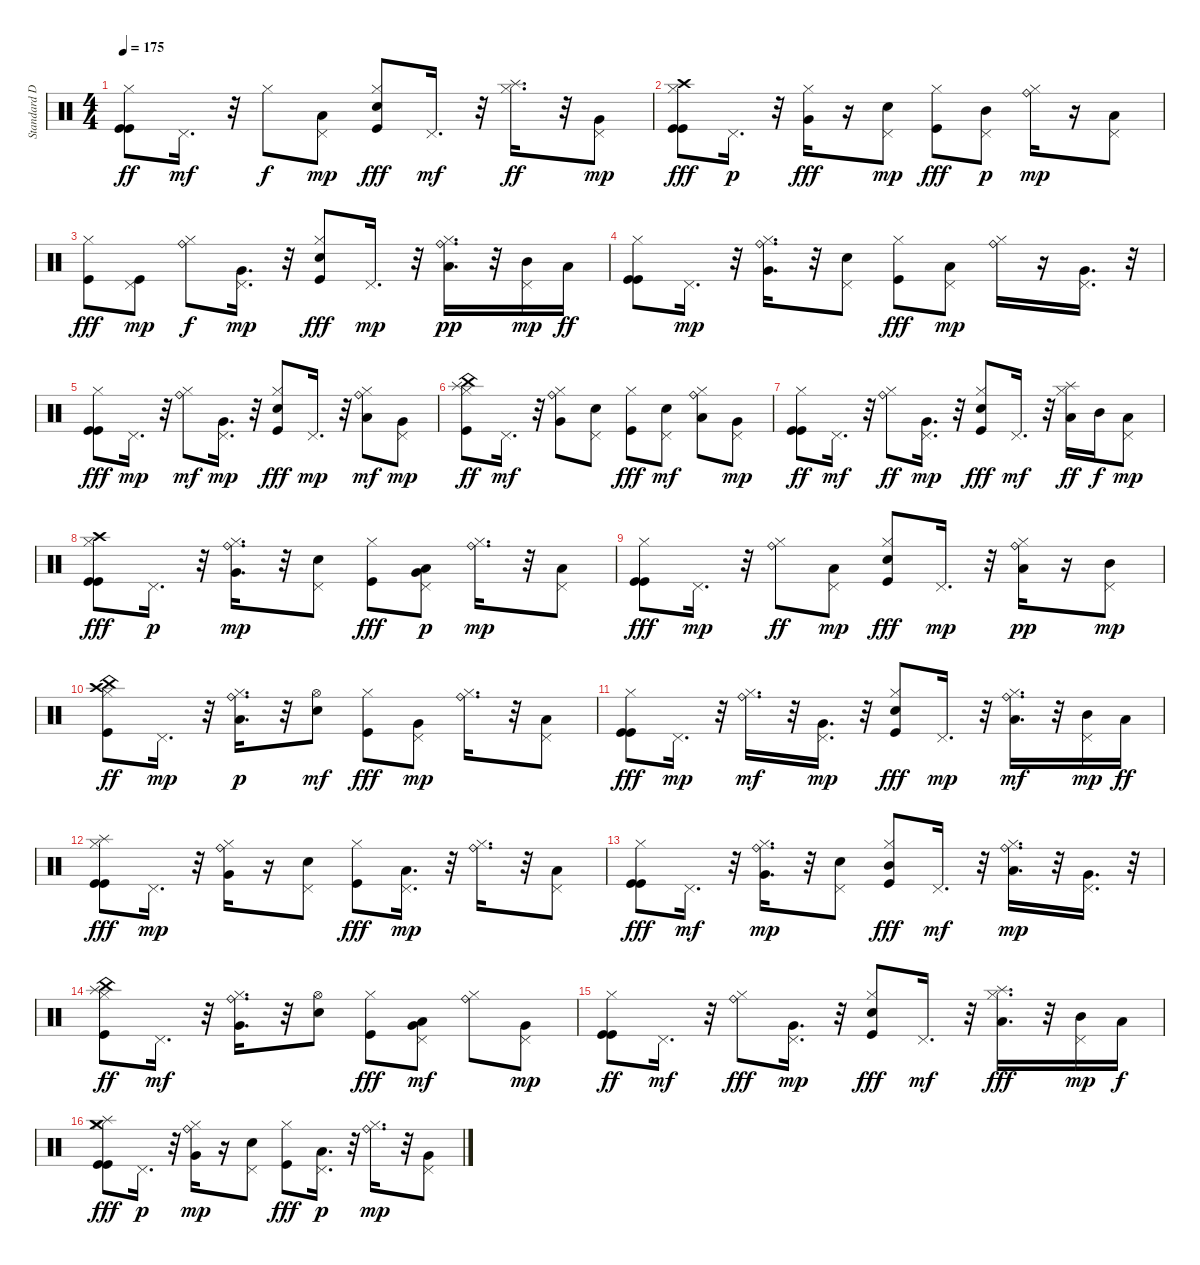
\track ("Standard Drums" "Standard D") {instrument percussion}
\staff {score}
\articulation defaults
\ts (4 4)
\tempo 175
\clef neutral
\ks c
("Kick (hit)" "Kick (hit)" "Hi-Hat (closed)").8{dy ff} "Pedal Hi-Hat (hit)".16{d dy mf} r.32 "Hi-Hat (closed)".8{dy f} ("Low Tom (hit)" "Pedal Hi-Hat (hit)").8{dy mp} ("Snare (hit) 2" "Kick (hit)" "Hi-Hat (closed)").8{dy fff} "Pedal Hi-Hat (hit)".16{d dy mf} r.32 ("Splash (hit)" "Hi-Hat (closed)").16{d dy ff} r.32 ("Very Low Tom (hit)" "Pedal Hi-Hat (hit)").8{dy mp} |
("Crash high (hit)" "Kick (hit)" "Kick (hit)" "Hi-Hat (closed)").8{dy fff} "Pedal Hi-Hat (hit)".16{d dy p} r.32 ("Very Low Tom (hit)" "Hi-Hat (closed)").16{dy fff} r.16 ("Snare (hit) 2" "Pedal Hi-Hat (hit)").8{dy mp} ("Kick (hit)" "Hi-Hat (closed)").8{dy fff} ("Mid Tom (hit)" "Pedal Hi-Hat (hit)").8{dy p} ("Ride (bell)" "Hi-Hat (closed)").16{dy mp} r.16 ("Low Tom (hit)" "Pedal Hi-Hat (hit)").8 |
("Kick (hit)" "Hi-Hat (closed)").8{dy fff} ("Kick (hit)" "Pedal Hi-Hat (hit)").8{dy mp} ("Ride (bell)" "Hi-Hat (closed)").8{dy f} ("Very Low Tom (hit)" "Pedal Hi-Hat (hit)").16{d dy mp} r.32 ("Snare (hit) 2" "Kick (hit)" "Hi-Hat (closed)").8{dy fff} "Pedal Hi-Hat (hit)".16{d dy mp} r.32 ("Ride (bell)" "Low Tom (hit)" "Hi-Hat (closed)").16{d dy pp} r.32 ("Mid Tom (hit)" "Pedal Hi-Hat (hit)").16{dy mp} "Low Tom (hit)".16{dy ff} |
("Kick (hit)" "Kick (hit)" "Hi-Hat (closed)").8 "Pedal Hi-Hat (hit)".16{d dy mp} r.32 ("Ride (bell)" "Very Low Tom (hit)" "Hi-Hat (closed)").16{d} r.32 ("Snare (hit) 2" "Pedal Hi-Hat (hit)").8 ("Kick (hit)" "Hi-Hat (closed)").8{dy fff} ("Low Tom (hit)" "Pedal Hi-Hat (hit)").8{dy mp} ("Ride (bell)" "Hi-Hat (closed)").16 r.16 ("Very Low Tom (hit)" "Pedal Hi-Hat (hit)").16{d} r.32 |
("Kick (hit)" "Kick (hit)" "Hi-Hat (closed)").8{dy fff} "Pedal Hi-Hat (hit)".16{d dy mp} r.32 ("Ride (bell)" "Hi-Hat (closed)").8{dy mf} ("Very Low Tom (hit)" "Pedal Hi-Hat (hit)").16{d dy mp} r.32 ("Snare (hit) 2" "Kick (hit)" "Hi-Hat (closed)").8{dy fff} "Pedal Hi-Hat (hit)".16{d dy mp} r.32 ("Ride (bell)" "Low Tom (hit)" "Hi-Hat (closed)").8{dy mf} ("Very Low Tom (hit)" "Pedal Hi-Hat (hit)").8{dy mp} |
("Splash (hit)" "Kick (hit)" "China (hit)" "Hi-Hat (closed)").8{dy ff} "Pedal Hi-Hat (hit)".16{d dy mf} r.32 ("Ride (bell)" "Very Low Tom (hit)" "Hi-Hat (closed)").8 ("Snare (hit) 2" "Pedal Hi-Hat (hit)").8 ("Kick (hit)" "Hi-Hat (closed)").8{dy fff} ("Electric Snare (hit)" "Pedal Hi-Hat (hit)").8{dy mf} ("Ride (bell)" "Low Tom (hit)" "Hi-Hat (closed)").8 ("Very Low Tom (hit)" "Pedal Hi-Hat (hit)").8{dy mp} |
("Kick (hit)" "Kick (hit)" "Hi-Hat (closed)").8{dy ff} "Pedal Hi-Hat (hit)".16{d dy mf} r.32 ("Ride (bell)" "Hi-Hat (closed)").8{dy ff} ("Very Low Tom (hit)" "Pedal Hi-Hat (hit)").16{d dy mp} r.32 ("Snare (hit) 2" "Kick (hit)" "Hi-Hat (closed)").8{dy fff} "Pedal Hi-Hat (hit)".16{d dy mf} r.32 ("Splash (hit)" "Low Tom (hit)" "Hi-Hat (closed)").16{dy ff} "Mid Tom (hit)".16{dy f} ("Low Tom (hit)" "Pedal Hi-Hat (hit)").8{dy mp} |
("Crash high (hit)" "Kick (hit)" "Kick (hit)" "Hi-Hat (closed)").8{dy fff} "Pedal Hi-Hat (hit)".16{d dy p} r.32 ("Ride (bell)" "Very Low Tom (hit)" "Hi-Hat (closed)").16{d dy mp} r.32 ("Snare (hit) 2" "Pedal Hi-Hat (hit)").8 ("Kick (hit)" "Hi-Hat (closed)").8{dy fff} ("Very Low Tom (hit)" "Low Floor Tom (hit)" "Pedal Hi-Hat (hit)").8{dy p} ("Ride (bell)" "Hi-Hat (closed)").16{d dy mp} r.32 ("Low Tom (hit)" "Pedal Hi-Hat (hit)").8 |
("Kick (hit)" "Kick (hit)" "Hi-Hat (closed)").8{dy fff} "Pedal Hi-Hat (hit)".16{d dy mp} r.32 ("Ride (bell)" "Hi-Hat (closed)").8{dy ff} ("Low Tom (hit)" "Pedal Hi-Hat (hit)").8{dy mp} ("Snare (hit) 2" "Kick (hit)" "Hi-Hat (closed)").8{dy fff} "Pedal Hi-Hat (hit)".16{d dy mp} r.32 ("Ride (bell)" "Low Tom (hit)" "Hi-Hat (closed)").16{dy pp} r.16 ("Mid Tom (hit)" "Pedal Hi-Hat (hit)").8{dy mp} |
("Crash high (hit)" "Kick (hit)" "China (hit)" "Hi-Hat (closed)").8{dy ff} "Pedal Hi-Hat (hit)".16{d dy mp} r.32 ("Ride (bell)" "Low Tom (hit)" "Hi-Hat (closed)").16{d dy p} r.32 ("Snare (hit) 2" "Hi-Hat (open)").8{dy mf} ("Kick (hit)" "Hi-Hat (closed)").8{dy fff} ("Very Low Tom (hit)" "Pedal Hi-Hat (hit)").8{dy mp} ("Ride (bell)" "Hi-Hat (closed)").16{d} r.32 ("Low Tom (hit)" "Pedal Hi-Hat (hit)").8 |
("Kick (hit)" "Kick (hit)" "Hi-Hat (closed)").8{dy fff} "Pedal Hi-Hat (hit)".16{d dy mp} r.32 ("Ride (bell)" "Hi-Hat (closed)").16{d dy mf} r.32 ("Very Low Tom (hit)" "Pedal Hi-Hat (hit)").16{d dy mp} r.32 ("Snare (hit) 2" "Kick (hit)" "Hi-Hat (closed)").8{dy fff} "Pedal Hi-Hat (hit)".16{d dy mp} r.32 ("Ride (bell)" "Low Tom (hit)" "Hi-Hat (closed)").16{d dy mf} r.32 ("Mid Tom (hit)" "Pedal Hi-Hat (hit)").16{dy mp} "Low Tom (hit)".16{dy ff} |
("Splash (hit)" "Kick (hit)" "Kick (hit)" "Hi-Hat (closed)").8{dy fff} "Pedal Hi-Hat (hit)".16{d dy mp} r.32 ("Ride (bell)" "Very Low Tom (hit)" "Hi-Hat (closed)").16 r.16 ("Snare (hit) 2" "Pedal Hi-Hat (hit)").8 ("Kick (hit)" "Hi-Hat (closed)").8{dy fff} ("Low Tom (hit)" "Pedal Hi-Hat (hit)").16{d dy mp} r.32 ("Ride (bell)" "Hi-Hat (closed)").16{d} r.32 ("Low Tom (hit)" "Pedal Hi-Hat (hit)").8 |
("Kick (hit)" "Kick (hit)" "Hi-Hat (closed)").8{dy fff} "Pedal Hi-Hat (hit)".16{d dy mf} r.32 ("Ride (bell)" "Very Low Tom (hit)" "Hi-Hat (closed)").16{d dy mp} r.32 ("Snare (hit) 2" "Pedal Hi-Hat (hit)").8 ("Mid Tom (hit)" "Kick (hit)" "Hi-Hat (closed)").8{dy fff} "Pedal Hi-Hat (hit)".16{d dy mf} r.32 ("Ride (bell)" "Low Tom (hit)" "Hi-Hat (closed)").16{d dy mp} r.32 ("Very Low Tom (hit)" "Pedal Hi-Hat (hit)").16{d} r.32 |
("China (hit)" "Kick (hit)" "Splash (hit)" "Hi-Hat (closed)").8{dy ff} "Pedal Hi-Hat (hit)".16{d dy mf} r.32 ("Ride (bell)" "Very Low Tom (hit)" "Hi-Hat (closed)").16{d} r.32 ("Snare (hit) 2" "Hi-Hat (open)").8 ("Kick (hit)" "Hi-Hat (closed)").8{dy fff} ("Low Tom (hit)" "Very Low Tom (hit)" "Pedal Hi-Hat (hit)").8{dy mf} ("Ride (bell)" "Hi-Hat (closed)").8 ("Very Low Tom (hit)" "Pedal Hi-Hat (hit)").8{dy mp} |
("Kick (hit)" "Kick (hit)" "Hi-Hat (closed)").8{dy ff} "Pedal Hi-Hat (hit)".16{d dy mf} r.32 ("Ride (bell)" "Hi-Hat (closed)").8{dy fff} ("Very Low Tom (hit)" "Pedal Hi-Hat (hit)").16{d dy mp} r.32 ("Snare (hit) 2" "Kick (hit)" "Hi-Hat (closed)").8{dy fff} "Pedal Hi-Hat (hit)".16{d dy mf} r.32 ("Splash (hit)" "Low Tom (hit)" "Hi-Hat (closed)").16{d dy fff} r.32 ("Mid Tom (hit)" "Pedal Hi-Hat (hit)").16{dy mp} "Low Tom (hit)".16{dy f} |
("Crash medium (hit)" "Splash (hit)" "Kick (hit)" "Kick (hit)" "Hi-Hat (closed)").8{dy fff} "Pedal Hi-Hat (hit)".16{d dy p} r.32 ("Ride (bell)" "Very Low Tom (hit)" "Hi-Hat (closed)").16{dy mp} r.16 ("Snare (hit) 2" "Pedal Hi-Hat (hit)").8 ("Kick (hit)" "Hi-Hat (closed)").8{dy fff} ("Low Tom (hit)" "Pedal Hi-Hat (hit)").16{d dy p} r.32 ("Ride (bell)" "Hi-Hat (closed)").16{d dy mp} r.32 ("Very Low Tom (hit)" "Pedal Hi-Hat (hit)").8
